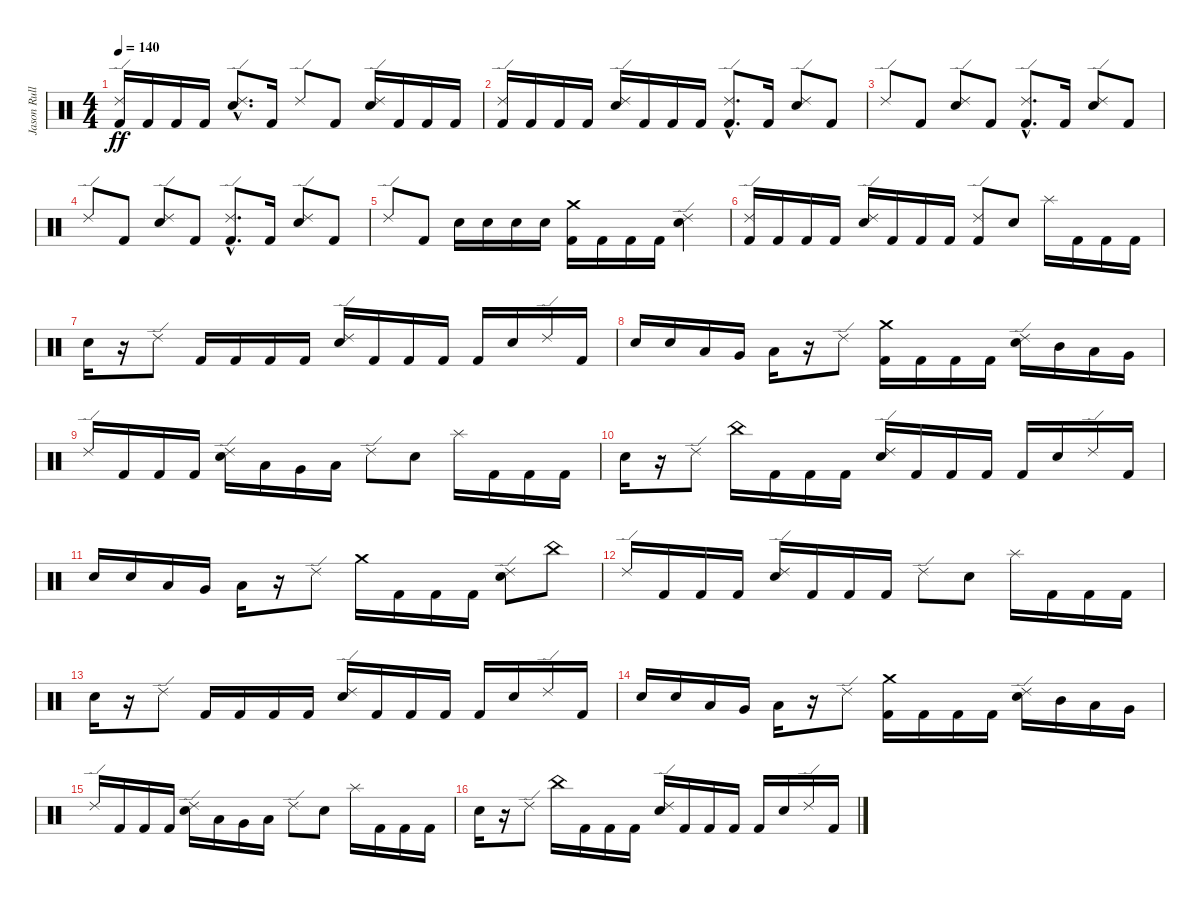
\track ("Jason Rullo" "Jason Rull") {instrument percussion}
\staff {score}
\articulation defaults
\ts (4 4)
\tempo 140
\clef neutral
\ks c
("Ride (edge) 2" "Kick (hit) 2").16{dy ff} "Kick (hit) 2".16 "Kick (hit) 2".16 "Kick (hit) 2".16 ("Electric Snare (hit)"{hac} "Ride (edge) 2"{hac}).8{d} "Kick (hit) 2".16 "Ride (edge) 2".8 "Kick (hit) 2".8 ("Electric Snare (hit)" "Ride (edge) 2").16 "Kick (hit) 2".16 "Kick (hit) 2".16 "Kick (hit) 2".16 |
("Ride (edge) 2" "Kick (hit) 2").16 "Kick (hit) 2".16 "Kick (hit) 2".16 "Kick (hit) 2".16 ("Electric Snare (hit)" "Ride (edge) 2").16 "Kick (hit) 2".16 "Kick (hit) 2".16 "Kick (hit) 2".16 ("Kick (hit) 2"{hac} "Ride (edge) 2"{hac}).8{d} "Kick (hit) 2".16 ("Electric Snare (hit)" "Ride (edge) 2").8 "Kick (hit) 2".8 |
"Ride (edge) 2".8 "Kick (hit) 2".8 ("Electric Snare (hit)" "Ride (edge) 2").8 "Kick (hit) 2".8 ("Kick (hit) 2"{hac} "Ride (edge) 2"{hac}).8{d} "Kick (hit) 2".16 ("Electric Snare (hit)" "Ride (edge) 2").8 "Kick (hit) 2".8 |
"Ride (edge) 2".8 "Kick (hit) 2".8 ("Electric Snare (hit)" "Ride (edge) 2").8 "Kick (hit) 2".8 ("Kick (hit) 2"{hac} "Ride (edge) 2"{hac}).8{d} "Kick (hit) 2".16 ("Electric Snare (hit)" "Ride (edge) 2").8 "Kick (hit) 2".8 |
"Ride (edge) 2".8 "Kick (hit) 2".8 "Electric Snare (hit)".16 "Electric Snare (hit)".16 "Electric Snare (hit)".16 "Electric Snare (hit)".16 ("Crash medium (hit)" "Kick (hit) 2").16 "Kick (hit) 2".16 "Kick (hit) 2".16 "Kick (hit) 2".16 ("Electric Snare (hit)" "Ride (edge) 2").4 |
("Ride (edge) 2" "Kick (hit) 2").16 "Kick (hit) 2".16 "Kick (hit) 2".16 "Kick (hit) 2".16 ("Electric Snare (hit)" "Ride (edge) 2").16 "Kick (hit) 2".16 "Kick (hit) 2".16 "Kick (hit) 2".16 ("Ride (edge) 2" "Kick (hit) 2").8 "Electric Snare (hit)".8 "Splash (hit)".16 "Kick (hit) 2".16 "Kick (hit) 2".16 "Kick (hit) 2".16 |
"Electric Snare (hit)".16 r.16 "Ride (edge) 2".8 "Kick (hit) 2".16 "Kick (hit) 2".16 "Kick (hit) 2".16 "Kick (hit) 2".16 ("Electric Snare (hit)" "Ride (edge) 2").16 "Kick (hit) 2".16 "Kick (hit) 2".16 "Kick (hit) 2".16 "Kick (hit) 2".16 "Electric Snare (hit)".16 "Ride (edge) 2".16 "Kick (hit) 2".16 |
"Electric Snare (hit)".16 "Electric Snare (hit)".16 "Low Tom (hit)".16 "Very Low Tom (hit)".16 "Low Floor Tom (hit)".16 r.16 "Ride (edge) 2".8 ("Crash medium (hit)" "Kick (hit) 2").16 "Kick (hit) 2".16 "Kick (hit) 2".16 "Kick (hit) 2".16 ("Electric Snare (hit)" "Ride (edge) 2").16 "Mid Tom (hit)".16 "Low Tom (hit)".16 "Very Low Tom (hit)".16 |
"Ride (edge) 2".16 "Kick (hit) 2".16 "Kick (hit) 2".16 "Kick (hit) 2".16 ("Electric Snare (hit)" "Ride (edge) 2").16 "Low Tom (hit)".16 "Very Low Tom (hit)".16 "Low Floor Tom (hit)".16 "Ride (edge) 2".8 "Electric Snare (hit)".8 "Splash (hit)".16 "Kick (hit) 2".16 "Kick (hit) 2".16 "Kick (hit) 2".16 |
"Electric Snare (hit)".16 r.16 "Ride (edge) 2".8 "China (hit)".16 "Kick (hit) 2".16 "Kick (hit) 2".16 "Kick (hit) 2".16 ("Electric Snare (hit)" "Ride (edge) 2").16 "Kick (hit) 2".16 "Kick (hit) 2".16 "Kick (hit) 2".16 "Kick (hit) 2".16 "Electric Snare (hit)".16 "Ride (edge) 2".16 "Kick (hit) 2".16 |
"Electric Snare (hit)".16 "Electric Snare (hit)".16 "Low Tom (hit)".16 "Very Low Tom (hit)".16 "Low Floor Tom (hit)".16 r.16 "Ride (edge) 2".8 "Crash medium (hit)".16 "Kick (hit) 2".16 "Kick (hit) 2".16 "Kick (hit) 2".16 ("Electric Snare (hit)" "Ride (edge) 2").8 "China (hit)".8 |
"Ride (edge) 2".16 "Kick (hit) 2".16 "Kick (hit) 2".16 "Kick (hit) 2".16 ("Electric Snare (hit)" "Ride (edge) 2").16 "Kick (hit) 2".16 "Kick (hit) 2".16 "Kick (hit) 2".16 "Ride (edge) 2".8 "Electric Snare (hit)".8 "Splash (hit)".16 "Kick (hit) 2".16 "Kick (hit) 2".16 "Kick (hit) 2".16 |
"Electric Snare (hit)".16 r.16 "Ride (edge) 2".8 "Kick (hit) 2".16 "Kick (hit) 2".16 "Kick (hit) 2".16 "Kick (hit) 2".16 ("Electric Snare (hit)" "Ride (edge) 2").16 "Kick (hit) 2".16 "Kick (hit) 2".16 "Kick (hit) 2".16 "Kick (hit) 2".16 "Electric Snare (hit)".16 "Ride (edge) 2".16 "Kick (hit) 2".16 |
"Electric Snare (hit)".16 "Electric Snare (hit)".16 "Low Tom (hit)".16 "Very Low Tom (hit)".16 "Low Floor Tom (hit)".16 r.16 "Ride (edge) 2".8 ("Crash medium (hit)" "Kick (hit) 2").16 "Kick (hit) 2".16 "Kick (hit) 2".16 "Kick (hit) 2".16 ("Electric Snare (hit)" "Ride (edge) 2").16 "Mid Tom (hit)".16 "Low Tom (hit)".16 "Very Low Tom (hit)".16 |
"Ride (edge) 2".16 "Kick (hit) 2".16 "Kick (hit) 2".16 "Kick (hit) 2".16 ("Electric Snare (hit)" "Ride (edge) 2").16 "Low Tom (hit)".16 "Very Low Tom (hit)".16 "Low Floor Tom (hit)".16 "Ride (edge) 2".8 "Electric Snare (hit)".8 "Splash (hit)".16 "Kick (hit) 2".16 "Kick (hit) 2".16 "Kick (hit) 2".16 |
"Electric Snare (hit)".16 r.16 "Ride (edge) 2".8 "China (hit)".16 "Kick (hit) 2".16 "Kick (hit) 2".16 "Kick (hit) 2".16 ("Electric Snare (hit)" "Ride (edge) 2").16 "Kick (hit) 2".16 "Kick (hit) 2".16 "Kick (hit) 2".16 "Kick (hit) 2".16 "Electric Snare (hit)".16 "Ride (edge) 2".16 "Kick (hit) 2".16
